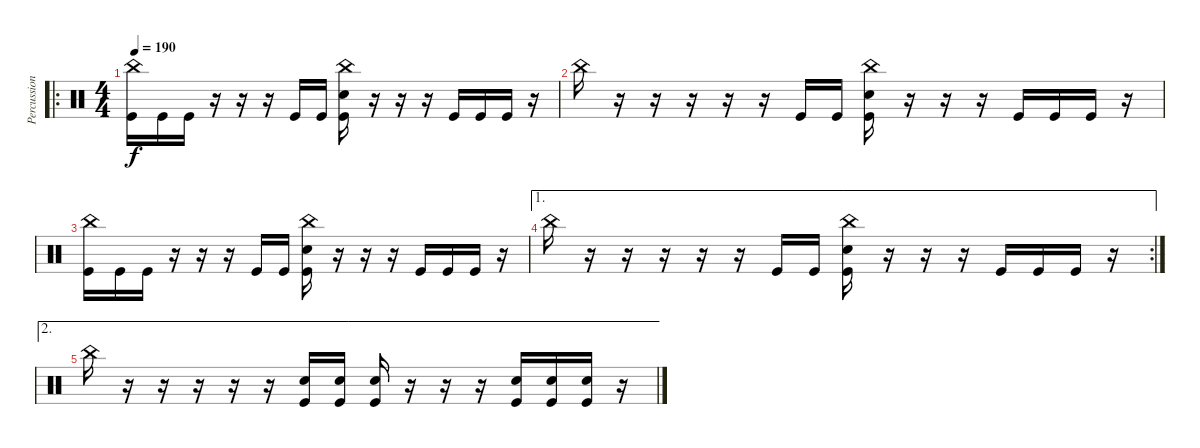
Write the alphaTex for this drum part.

\track ("Percussion" "Percussion") {instrument percussion}
\staff {score}
\articulation defaults
\ro
\ts (4 4)
\tempo 190
\clef neutral
\ks c
("China (hit)" "Kick (hit)").16{dy f} "Kick (hit)".16 "Kick (hit)".16 r.16 r.16 r.16 "Kick (hit)".16 "Kick (hit)".16 ("China (hit)" "Snare (hit) 2" "Kick (hit)").16 r.16 r.16 r.16 "Kick (hit)".16 "Kick (hit)".16 "Kick (hit)".16 r.16 |
"China (hit)".16 r.16 r.16 r.16 r.16 r.16 "Kick (hit)".16 "Kick (hit)".16 ("China (hit)" "Snare (hit) 2" "Kick (hit)").16 r.16 r.16 r.16 "Kick (hit)".16 "Kick (hit)".16 "Kick (hit)".16 r.16 |
("China (hit)" "Kick (hit)").16 "Kick (hit)".16 "Kick (hit)".16 r.16 r.16 r.16 "Kick (hit)".16 "Kick (hit)".16 ("China (hit)" "Snare (hit) 2" "Kick (hit)").16 r.16 r.16 r.16 "Kick (hit)".16 "Kick (hit)".16 "Kick (hit)".16 r.16 |
\ae 1
\rc 2 "China (hit)".16
r.16 r.16 r.16 r.16 r.16 "Kick (hit)".16 "Kick (hit)".16 ("China (hit)" "Snare (hit) 2" "Kick (hit)").16 r.16 r.16 r.16 "Kick (hit)".16 "Kick (hit)".16 "Kick (hit)".16 r.16 |
\ae 2 "China (hit)".16
r.16 r.16 r.16 r.16 r.16 ("Snare (hit) 2" "Kick (hit)").16 ("Snare (hit) 2" "Kick (hit)").16 ("Snare (hit) 2" "Kick (hit)").16 r.16 r.16 r.16 ("Snare (hit) 2" "Kick (hit)").16 ("Snare (hit) 2" "Kick (hit)").16 ("Snare (hit) 2" "Kick (hit)").16 r.16
